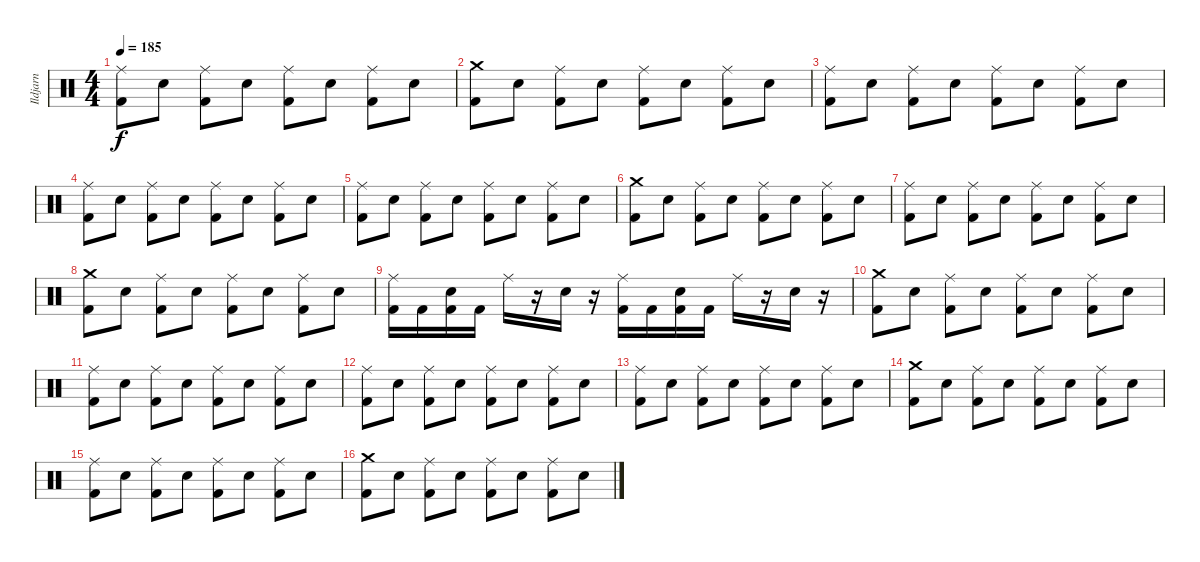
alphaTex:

\track ("Ildjarn" "Ildjarn") {instrument percussion}
\staff {score}
\articulation defaults
\ts (4 4)
\tempo 185
\clef neutral
\ks c
("Ride (middle)" "Kick (hit) 2").8{dy f} "Snare (hit) 2".8 ("Ride (middle)" "Kick (hit) 2").8 "Snare (hit) 2".8 ("Ride (middle)" "Kick (hit) 2").8 "Snare (hit) 2".8 ("Ride (middle)" "Kick (hit) 2").8 "Snare (hit) 2".8 |
("Crash medium (hit)" "Kick (hit) 2").8 "Snare (hit) 2".8 ("Ride (middle)" "Kick (hit) 2").8 "Snare (hit) 2".8 ("Ride (middle)" "Kick (hit) 2").8 "Snare (hit) 2".8 ("Ride (middle)" "Kick (hit) 2").8 "Snare (hit) 2".8 |
("Ride (middle)" "Kick (hit) 2").8 "Snare (hit) 2".8 ("Ride (middle)" "Kick (hit) 2").8 "Snare (hit) 2".8 ("Ride (middle)" "Kick (hit) 2").8 "Snare (hit) 2".8 ("Ride (middle)" "Kick (hit) 2").8 "Snare (hit) 2".8 |
("Ride (middle)" "Kick (hit) 2").8 "Snare (hit) 2".8 ("Ride (middle)" "Kick (hit) 2").8 "Snare (hit) 2".8 ("Ride (middle)" "Kick (hit) 2").8 "Snare (hit) 2".8 ("Ride (middle)" "Kick (hit) 2").8 "Snare (hit) 2".8 |
("Ride (middle)" "Kick (hit) 2").8 "Snare (hit) 2".8 ("Ride (middle)" "Kick (hit) 2").8 "Snare (hit) 2".8 ("Ride (middle)" "Kick (hit) 2").8 "Snare (hit) 2".8 ("Ride (middle)" "Kick (hit) 2").8 "Snare (hit) 2".8 |
("Crash medium (hit)" "Kick (hit) 2").8 "Snare (hit) 2".8 ("Ride (middle)" "Kick (hit) 2").8 "Snare (hit) 2".8 ("Ride (middle)" "Kick (hit) 2").8 "Snare (hit) 2".8 ("Ride (middle)" "Kick (hit) 2").8 "Snare (hit) 2".8 |
("Ride (middle)" "Kick (hit) 2").8 "Snare (hit) 2".8 ("Ride (middle)" "Kick (hit) 2").8 "Snare (hit) 2".8 ("Ride (middle)" "Kick (hit) 2").8 "Snare (hit) 2".8 ("Ride (middle)" "Kick (hit) 2").8 "Snare (hit) 2".8 |
("Crash medium (hit)" "Kick (hit) 2").8 "Snare (hit) 2".8 ("Ride (middle)" "Kick (hit) 2").8 "Snare (hit) 2".8 ("Ride (middle)" "Kick (hit) 2").8 "Snare (hit) 2".8 ("Ride (middle)" "Kick (hit) 2").8 "Snare (hit) 2".8 |
("Ride (middle)" "Kick (hit) 2").16 "Kick (hit) 2".16 ("Snare (hit) 2" "Kick (hit) 2").16 "Kick (hit) 2".16 "Ride (middle)".16 r.16 "Snare (hit) 2".16 r.16 ("Ride (middle)" "Kick (hit) 2").16 "Kick (hit) 2".16 ("Snare (hit) 2" "Kick (hit) 2").16 "Kick (hit) 2".16 "Ride (middle)".16 r.16 "Snare (hit) 2".16 r.16 |
("Crash medium (hit)" "Kick (hit) 2").8 "Snare (hit) 2".8 ("Ride (middle)" "Kick (hit) 2").8 "Snare (hit) 2".8 ("Ride (middle)" "Kick (hit) 2").8 "Snare (hit) 2".8 ("Ride (middle)" "Kick (hit) 2").8 "Snare (hit) 2".8 |
("Ride (middle)" "Kick (hit) 2").8 "Snare (hit) 2".8 ("Ride (middle)" "Kick (hit) 2").8 "Snare (hit) 2".8 ("Ride (middle)" "Kick (hit) 2").8 "Snare (hit) 2".8 ("Ride (middle)" "Kick (hit) 2").8 "Snare (hit) 2".8 |
("Ride (middle)" "Kick (hit) 2").8 "Snare (hit) 2".8 ("Ride (middle)" "Kick (hit) 2").8 "Snare (hit) 2".8 ("Ride (middle)" "Kick (hit) 2").8 "Snare (hit) 2".8 ("Ride (middle)" "Kick (hit) 2").8 "Snare (hit) 2".8 |
("Ride (middle)" "Kick (hit) 2").8 "Snare (hit) 2".8 ("Ride (middle)" "Kick (hit) 2").8 "Snare (hit) 2".8 ("Ride (middle)" "Kick (hit) 2").8 "Snare (hit) 2".8 ("Ride (middle)" "Kick (hit) 2").8 "Snare (hit) 2".8 |
("Crash medium (hit)" "Kick (hit) 2").8 "Snare (hit) 2".8 ("Ride (middle)" "Kick (hit) 2").8 "Snare (hit) 2".8 ("Ride (middle)" "Kick (hit) 2").8 "Snare (hit) 2".8 ("Ride (middle)" "Kick (hit) 2").8 "Snare (hit) 2".8 |
("Ride (middle)" "Kick (hit) 2").8 "Snare (hit) 2".8 ("Ride (middle)" "Kick (hit) 2").8 "Snare (hit) 2".8 ("Ride (middle)" "Kick (hit) 2").8 "Snare (hit) 2".8 ("Ride (middle)" "Kick (hit) 2").8 "Snare (hit) 2".8 |
("Crash medium (hit)" "Kick (hit) 2").8 "Snare (hit) 2".8 ("Ride (middle)" "Kick (hit) 2").8 "Snare (hit) 2".8 ("Ride (middle)" "Kick (hit) 2").8 "Snare (hit) 2".8 ("Ride (middle)" "Kick (hit) 2").8 "Snare (hit) 2".8
